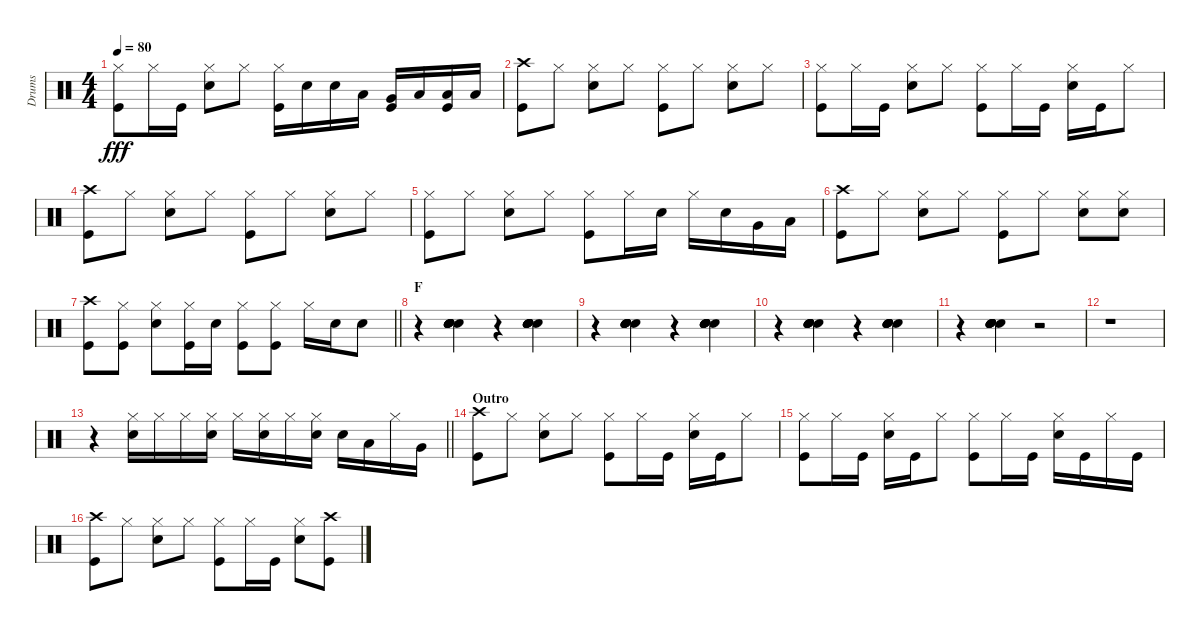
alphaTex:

\track ("Drums" "Drums") {instrument percussion}
\staff {score}
\articulation defaults
\ts (4 4)
\tempo 80
\clef neutral
\ks c
("Hi-Hat (closed)" "Kick (hit)").8{dy fff} "Hi-Hat (closed)".16 "Kick (hit)".16 ("Hi-Hat (closed)" "Snare (hit) 2").8 "Hi-Hat (closed)".8 ("Hi-Hat (closed)" "Kick (hit)").16 "Snare (hit) 2".16 "Snare (hit) 2".16 "Low Tom (hit)".16 ("Very Low Tom (hit)" "Kick (hit)").16 "Low Tom (hit)".16 ("Low Floor Tom (hit)" "Kick (hit)").16 "Low Tom (hit)".16 |
("Crash high (hit)" "Kick (hit)").8 "Hi-Hat (closed)".8 ("Hi-Hat (closed)" "Snare (hit) 2").8 "Hi-Hat (closed)".8 ("Hi-Hat (closed)" "Kick (hit)").8 "Hi-Hat (closed)".8 ("Hi-Hat (closed)" "Snare (hit) 2").8 "Hi-Hat (closed)".8 |
("Hi-Hat (closed)" "Kick (hit)").8 "Hi-Hat (closed)".16 "Kick (hit)".16 ("Hi-Hat (closed)" "Snare (hit) 2").8 "Hi-Hat (closed)".8 ("Hi-Hat (closed)" "Kick (hit)").8 "Hi-Hat (closed)".16 "Kick (hit)".16 ("Hi-Hat (closed)" "Snare (hit) 2").16 "Kick (hit)".16 "Hi-Hat (closed)".8 |
("Crash high (hit)" "Kick (hit)").8 "Hi-Hat (closed)".8 ("Hi-Hat (closed)" "Snare (hit) 2").8 "Hi-Hat (closed)".8 ("Hi-Hat (closed)" "Kick (hit)").8 "Hi-Hat (closed)".8 ("Hi-Hat (closed)" "Snare (hit) 2").8 "Hi-Hat (closed)".8 |
("Hi-Hat (closed)" "Kick (hit)").8 "Hi-Hat (closed)".8 ("Hi-Hat (closed)" "Snare (hit) 2").8 "Hi-Hat (closed)".8 ("Hi-Hat (closed)" "Kick (hit)").8 "Hi-Hat (closed)".16 "Snare (hit) 2".16 "Hi-Hat (closed)".16 "Snare (hit) 2".16 "Very Low Tom (hit)".16 "Low Tom (hit)".16 |
("Crash high (hit)" "Kick (hit)").8 "Hi-Hat (closed)".8 ("Hi-Hat (closed)" "Snare (hit) 2").8 "Hi-Hat (closed)".8 ("Hi-Hat (closed)" "Kick (hit)").8 "Hi-Hat (closed)".8 ("Hi-Hat (closed)" "Snare (hit) 2").8 ("Hi-Hat (closed)" "Snare (hit) 2").8 |
\barLineRight lightlight
("Crash high (hit)" "Kick (hit)").8 ("Hi-Hat (closed)" "Kick (hit)").8 ("Hi-Hat (closed)" "Snare (hit) 2").8 ("Hi-Hat (closed)" "Kick (hit)").16 "Snare (hit) 2".16 ("Hi-Hat (closed)" "Kick (hit)").8 ("Hi-Hat (closed)" "Kick (hit)").8 "Hi-Hat (closed)".16 "Snare (hit) 2".16 "Snare (hit) 2".8 |
\section ("" "F")
r.4 ("Hand Clap (hit)" "Hand Clap (hit)" "Hand Clap (hit)" "Hand Clap (hit)" "Hand Clap (hit)" "Hand Clap (hit)").4{bd 60} r.4 ("Hand Clap (hit)" "Hand Clap (hit)" "Hand Clap (hit)" "Hand Clap (hit)" "Hand Clap (hit)" "Hand Clap (hit)").4{bd 60} |
r.4 ("Hand Clap (hit)" "Hand Clap (hit)" "Hand Clap (hit)" "Hand Clap (hit)" "Hand Clap (hit)" "Hand Clap (hit)").4{bd 60} r.4 ("Hand Clap (hit)" "Hand Clap (hit)" "Hand Clap (hit)" "Hand Clap (hit)" "Hand Clap (hit)" "Hand Clap (hit)").4{bd 60} |
r.4 ("Hand Clap (hit)" "Hand Clap (hit)" "Hand Clap (hit)" "Hand Clap (hit)" "Hand Clap (hit)" "Hand Clap (hit)").4{bd 60} r.4 ("Hand Clap (hit)" "Hand Clap (hit)" "Hand Clap (hit)" "Hand Clap (hit)" "Hand Clap (hit)" "Hand Clap (hit)").4{bd 60} |
r.4 ("Hand Clap (hit)" "Hand Clap (hit)" "Hand Clap (hit)" "Hand Clap (hit)" "Hand Clap (hit)" "Hand Clap (hit)").4{bd 60} r.2 |
r.1 |
\barLineRight lightlight
r.4 ("Hi-Hat (closed)" "Snare (hit) 2").16 "Hi-Hat (closed)".16 "Hi-Hat (closed)".16 ("Hi-Hat (closed)" "Snare (hit) 2").16 "Hi-Hat (closed)".16 ("Hi-Hat (closed)" "Snare (hit) 2").16 "Hi-Hat (closed)".16 ("Hi-Hat (closed)" "Snare (hit) 2").16 "Snare (hit) 2".16 "Low Tom (hit)".16 "Hi-Hat (closed)".16 "Very Low Tom (hit)".16 |
\section ("" "Outro")
("Crash high (hit)" "Kick (hit)").8 "Hi-Hat (closed)".8 ("Hi-Hat (closed)" "Snare (hit) 2").8 "Hi-Hat (closed)".8 ("Hi-Hat (closed)" "Kick (hit)").8 "Hi-Hat (closed)".16 "Kick (hit)".16 ("Hi-Hat (closed)" "Snare (hit) 2").16 "Kick (hit)".16 "Hi-Hat (closed)".8 |
("Hi-Hat (closed)" "Kick (hit)").8 "Hi-Hat (closed)".16 "Kick (hit)".16 ("Hi-Hat (closed)" "Snare (hit) 2").16 "Kick (hit)".16 "Hi-Hat (closed)".8 ("Hi-Hat (closed)" "Kick (hit)").8 "Hi-Hat (closed)".16 "Kick (hit)".16 ("Hi-Hat (closed)" "Snare (hit) 2").16 "Kick (hit)".16 "Hi-Hat (closed)".16 "Kick (hit)".16 |
("Crash high (hit)" "Kick (hit)").8 "Hi-Hat (closed)".8 ("Hi-Hat (closed)" "Snare (hit) 2").8 "Hi-Hat (closed)".8 ("Hi-Hat (closed)" "Kick (hit)").8 "Hi-Hat (closed)".16 "Kick (hit)".16 ("Hi-Hat (closed)" "Snare (hit) 2").8 ("Crash high (hit)" "Kick (hit)").8
